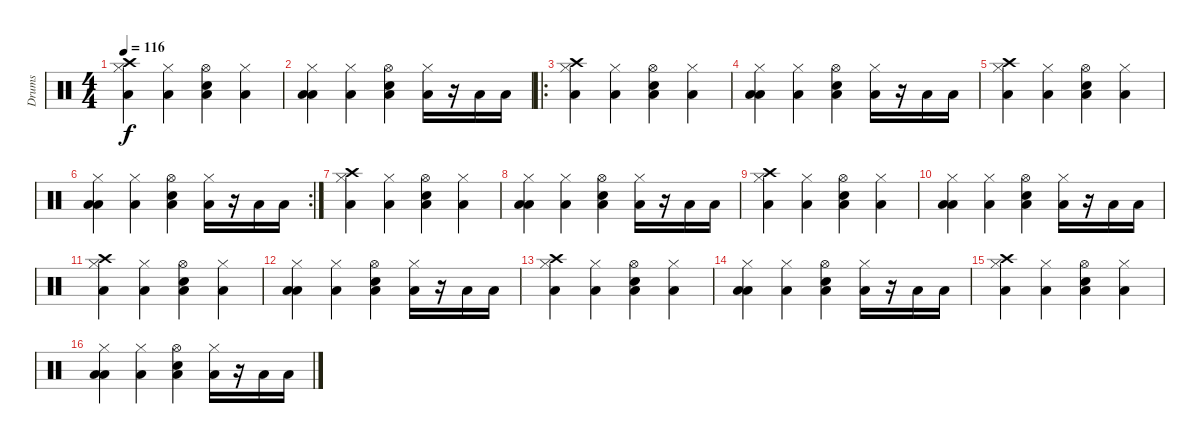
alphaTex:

\track ("Drums" "Drums") {instrument percussion}
\staff {score}
\articulation defaults
\ts (4 4)
\tempo 116
\clef neutral
\ks c
("Crash high (hit)" "Hi-Hat (closed)" "Low Floor Tom (hit)").4{dy f} ("Hi-Hat (closed)" "Low Floor Tom (hit)").4 ("Snare (hit) 2" "Hi-Hat (open)" "Low Tom (hit)").4 ("Low Floor Tom (hit)" "Hi-Hat (closed)").4 |
("Low Tom (hit)" "Hi-Hat (closed)" "Low Floor Tom (hit)").4 ("Hi-Hat (closed)" "Low Floor Tom (hit)").4 ("Snare (hit) 2" "Hi-Hat (open)" "Low Tom (hit)").4 ("Low Floor Tom (hit)" "Hi-Hat (closed)").16 r.16 "Low Floor Tom (hit)".16 "Low Floor Tom (hit)".16 |
\ro
("Crash high (hit)" "Hi-Hat (closed)" "Low Floor Tom (hit)").4 ("Hi-Hat (closed)" "Low Floor Tom (hit)").4 ("Snare (hit) 2" "Hi-Hat (open)" "Low Tom (hit)").4 ("Low Floor Tom (hit)" "Hi-Hat (closed)").4 |
("Low Tom (hit)" "Hi-Hat (closed)" "Low Floor Tom (hit)").4 ("Hi-Hat (closed)" "Low Floor Tom (hit)").4 ("Snare (hit) 2" "Hi-Hat (open)" "Low Tom (hit)").4 ("Low Floor Tom (hit)" "Hi-Hat (closed)").16 r.16 "Low Tom (hit)".16 "Low Tom (hit)".16 |
("Crash high (hit)" "Hi-Hat (closed)" "Low Floor Tom (hit)").4 ("Hi-Hat (closed)" "Low Floor Tom (hit)").4 ("Snare (hit) 2" "Hi-Hat (open)" "Low Tom (hit)").4 ("Low Floor Tom (hit)" "Hi-Hat (closed)").4 |
\rc 2
("Low Tom (hit)" "Hi-Hat (closed)" "Low Floor Tom (hit)").4 ("Hi-Hat (closed)" "Low Floor Tom (hit)").4 ("Snare (hit) 2" "Hi-Hat (open)" "Low Tom (hit)").4 ("Low Floor Tom (hit)" "Hi-Hat (closed)").16 r.16 "Low Floor Tom (hit)".16 "Low Floor Tom (hit)".16 |
("Crash high (hit)" "Hi-Hat (closed)" "Low Floor Tom (hit)").4 ("Hi-Hat (closed)" "Low Floor Tom (hit)").4 ("Snare (hit) 2" "Hi-Hat (open)" "Low Tom (hit)").4 ("Low Floor Tom (hit)" "Hi-Hat (closed)").4 |
("Low Tom (hit)" "Hi-Hat (closed)" "Low Floor Tom (hit)").4 ("Hi-Hat (closed)" "Low Floor Tom (hit)").4 ("Snare (hit) 2" "Hi-Hat (open)" "Low Tom (hit)").4 ("Low Floor Tom (hit)" "Hi-Hat (closed)").16 r.16 "Low Tom (hit)".16 "Low Tom (hit)".16 |
("Crash high (hit)" "Hi-Hat (closed)" "Low Floor Tom (hit)").4 ("Hi-Hat (closed)" "Low Floor Tom (hit)").4 ("Snare (hit) 2" "Hi-Hat (open)" "Low Tom (hit)").4 ("Low Floor Tom (hit)" "Hi-Hat (closed)").4 |
("Low Tom (hit)" "Hi-Hat (closed)" "Low Floor Tom (hit)").4 ("Hi-Hat (closed)" "Low Floor Tom (hit)").4 ("Snare (hit) 2" "Hi-Hat (open)" "Low Tom (hit)").4 ("Low Floor Tom (hit)" "Hi-Hat (closed)").16 r.16 "Low Floor Tom (hit)".16 "Low Floor Tom (hit)".16 |
("Crash high (hit)" "Hi-Hat (closed)" "Low Floor Tom (hit)").4 ("Hi-Hat (closed)" "Low Floor Tom (hit)").4 ("Snare (hit) 2" "Hi-Hat (open)" "Low Tom (hit)").4 ("Low Floor Tom (hit)" "Hi-Hat (closed)").4 |
("Low Tom (hit)" "Hi-Hat (closed)" "Low Floor Tom (hit)").4 ("Hi-Hat (closed)" "Low Floor Tom (hit)").4 ("Snare (hit) 2" "Hi-Hat (open)" "Low Tom (hit)").4 ("Low Floor Tom (hit)" "Hi-Hat (closed)").16 r.16 "Low Tom (hit)".16 "Low Tom (hit)".16 |
("Crash high (hit)" "Hi-Hat (closed)" "Low Floor Tom (hit)").4 ("Hi-Hat (closed)" "Low Floor Tom (hit)").4 ("Snare (hit) 2" "Hi-Hat (open)" "Low Tom (hit)").4 ("Low Floor Tom (hit)" "Hi-Hat (closed)").4 |
("Low Tom (hit)" "Hi-Hat (closed)" "Low Floor Tom (hit)").4 ("Hi-Hat (closed)" "Low Floor Tom (hit)").4 ("Snare (hit) 2" "Hi-Hat (open)" "Low Tom (hit)").4 ("Low Floor Tom (hit)" "Hi-Hat (closed)").16 r.16 "Low Floor Tom (hit)".16 "Low Floor Tom (hit)".16 |
("Crash high (hit)" "Hi-Hat (closed)" "Low Floor Tom (hit)").4 ("Hi-Hat (closed)" "Low Floor Tom (hit)").4 ("Snare (hit) 2" "Hi-Hat (open)" "Low Tom (hit)").4 ("Low Floor Tom (hit)" "Hi-Hat (closed)").4 |
("Low Tom (hit)" "Hi-Hat (closed)" "Low Floor Tom (hit)").4 ("Hi-Hat (closed)" "Low Floor Tom (hit)").4 ("Snare (hit) 2" "Hi-Hat (open)" "Low Tom (hit)").4 ("Low Floor Tom (hit)" "Hi-Hat (closed)").16 r.16 "Low Tom (hit)".16 "Low Tom (hit)".16
